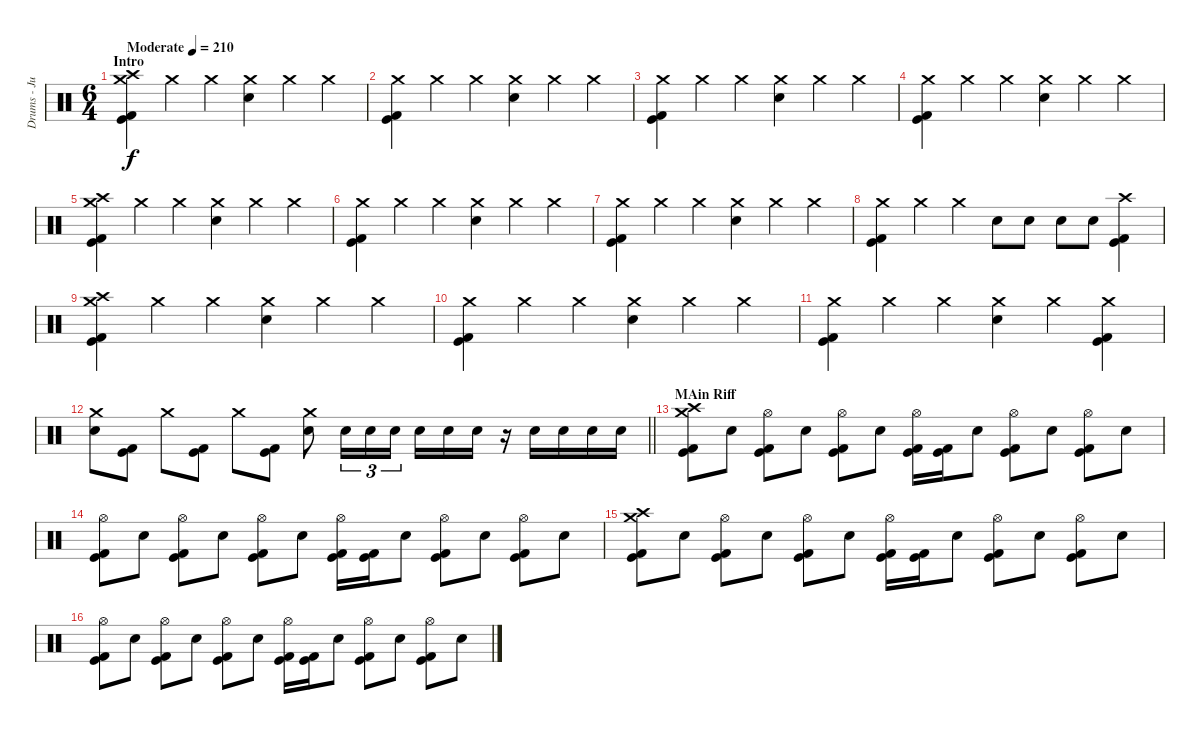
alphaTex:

\track ("Drums - Justin Foley" "Drums - Ju") {instrument percussion}
\staff {score}
\articulation defaults
\ts (6 4)
\section ("" "Intro")
\tempo (210 "Moderate")
\clef neutral
\ks c
("Crash high (hit)" "Crash medium (hit)" "Kick (hit) 2" "Kick (hit)").4{dy f} "Crash medium (hit)".4 "Crash medium (hit)".4 ("Crash medium (hit)" "Snare (hit) 2").4 "Crash medium (hit)".4 "Crash medium (hit)".4 |
("Crash medium (hit)" "Kick (hit) 2" "Kick (hit)").4 "Crash medium (hit)".4 "Crash medium (hit)".4 ("Crash medium (hit)" "Snare (hit) 2").4 "Crash medium (hit)".4 "Crash medium (hit)".4 |
("Crash medium (hit)" "Kick (hit) 2" "Kick (hit)").4 "Crash medium (hit)".4 "Crash medium (hit)".4 ("Crash medium (hit)" "Snare (hit) 2").4 "Crash medium (hit)".4 "Crash medium (hit)".4 |
("Crash medium (hit)" "Kick (hit) 2" "Kick (hit)").4 "Crash medium (hit)".4 "Crash medium (hit)".4 ("Crash medium (hit)" "Snare (hit) 2").4 "Crash medium (hit)".4 "Crash medium (hit)".4 |
("Crash high (hit)" "Crash medium (hit)" "Kick (hit) 2" "Kick (hit)").4 "Crash medium (hit)".4 "Crash medium (hit)".4 ("Crash medium (hit)" "Snare (hit) 2").4 "Crash medium (hit)".4 "Crash medium (hit)".4 |
("Crash medium (hit)" "Kick (hit) 2" "Kick (hit)").4 "Crash medium (hit)".4 "Crash medium (hit)".4 ("Crash medium (hit)" "Snare (hit) 2").4 "Crash medium (hit)".4 "Crash medium (hit)".4 |
("Crash medium (hit)" "Kick (hit) 2" "Kick (hit)").4 "Crash medium (hit)".4 "Crash medium (hit)".4 ("Crash medium (hit)" "Snare (hit) 2").4 "Crash medium (hit)".4 "Crash medium (hit)".4 |
("Crash medium (hit)" "Kick (hit) 2" "Kick (hit)").4 "Crash medium (hit)".4 "Crash medium (hit)".4 "Snare (hit) 2".8 "Snare (hit) 2".8 "Snare (hit) 2".8 "Snare (hit) 2".8 ("Crash high (hit)" "Kick (hit) 2" "Kick (hit)").4 |
("Crash high (hit)" "Crash medium (hit)" "Kick (hit) 2" "Kick (hit)").4 "Crash medium (hit)".4 "Crash medium (hit)".4 ("Crash medium (hit)" "Snare (hit) 2").4 "Crash medium (hit)".4 "Crash medium (hit)".4 |
("Crash medium (hit)" "Kick (hit) 2" "Kick (hit)").4 "Crash medium (hit)".4 "Crash medium (hit)".4 ("Crash medium (hit)" "Snare (hit) 2").4 "Crash medium (hit)".4 "Crash medium (hit)".4 |
("Crash medium (hit)" "Kick (hit) 2" "Kick (hit)").4 "Crash medium (hit)".4 "Crash medium (hit)".4 ("Crash medium (hit)" "Snare (hit) 2").4 "Crash medium (hit)".4 ("Crash medium (hit)" "Kick (hit) 2" "Kick (hit)").4 |
\barLineRight lightlight
("Crash medium (hit)" "Snare (hit) 2").8 ("Kick (hit) 2" "Kick (hit)").8 "Crash medium (hit)".8 ("Kick (hit) 2" "Kick (hit)").8 "Crash medium (hit)".8 ("Kick (hit) 2" "Kick (hit)").8 ("Crash medium (hit)" "Snare (hit) 2").8 "Snare (hit) 2".16{tu (3 2)} "Snare (hit) 2".16{tu (3 2)} "Snare (hit) 2".16{tu (3 2) beam splitsecondary} "Snare (hit) 2".16 "Snare (hit) 2".16 "Snare (hit) 2".16 r.16 "Snare (hit) 2".16 "Snare (hit) 2".16 "Snare (hit) 2".16 "Snare (hit) 2".16 |
\section ("" "MAin Riff")
("Crash high (hit)" "Kick (hit) 2" "Kick (hit)" "Crash medium (hit)").8 "Snare (hit) 2".8 ("Hi-Hat (open)" "Kick (hit) 2" "Kick (hit)").8 "Snare (hit) 2".8 ("Hi-Hat (open)" "Kick (hit) 2" "Kick (hit)").8 "Snare (hit) 2".8 ("Hi-Hat (open)" "Kick (hit) 2" "Kick (hit)").16 ("Kick (hit) 2" "Kick (hit)").16 "Snare (hit) 2".8 ("Hi-Hat (open)" "Kick (hit) 2" "Kick (hit)").8 "Snare (hit) 2".8 ("Hi-Hat (open)" "Kick (hit) 2" "Kick (hit)").8 "Snare (hit) 2".8 |
("Hi-Hat (open)" "Kick (hit) 2" "Kick (hit)").8 "Snare (hit) 2".8 ("Hi-Hat (open)" "Kick (hit) 2" "Kick (hit)").8 "Snare (hit) 2".8 ("Hi-Hat (open)" "Kick (hit) 2" "Kick (hit)").8 "Snare (hit) 2".8 ("Hi-Hat (open)" "Kick (hit) 2" "Kick (hit)").16 ("Kick (hit) 2" "Kick (hit)").16 "Snare (hit) 2".8 ("Hi-Hat (open)" "Kick (hit) 2" "Kick (hit)").8 "Snare (hit) 2".8 ("Hi-Hat (open)" "Kick (hit) 2" "Kick (hit)").8 "Snare (hit) 2".8 |
("Crash high (hit)" "Kick (hit) 2" "Kick (hit)" "Crash medium (hit)").8 "Snare (hit) 2".8 ("Hi-Hat (open)" "Kick (hit) 2" "Kick (hit)").8 "Snare (hit) 2".8 ("Hi-Hat (open)" "Kick (hit) 2" "Kick (hit)").8 "Snare (hit) 2".8 ("Hi-Hat (open)" "Kick (hit) 2" "Kick (hit)").16 ("Kick (hit) 2" "Kick (hit)").16 "Snare (hit) 2".8 ("Hi-Hat (open)" "Kick (hit) 2" "Kick (hit)").8 "Snare (hit) 2".8 ("Hi-Hat (open)" "Kick (hit) 2" "Kick (hit)").8 "Snare (hit) 2".8 |
("Hi-Hat (open)" "Kick (hit) 2" "Kick (hit)").8 "Snare (hit) 2".8 ("Hi-Hat (open)" "Kick (hit) 2" "Kick (hit)").8 "Snare (hit) 2".8 ("Hi-Hat (open)" "Kick (hit) 2" "Kick (hit)").8 "Snare (hit) 2".8 ("Hi-Hat (open)" "Kick (hit) 2" "Kick (hit)").16 ("Kick (hit) 2" "Kick (hit)").16 "Snare (hit) 2".8 ("Hi-Hat (open)" "Kick (hit) 2" "Kick (hit)").8 "Snare (hit) 2".8 ("Hi-Hat (open)" "Kick (hit) 2" "Kick (hit)").8 "Snare (hit) 2".8
